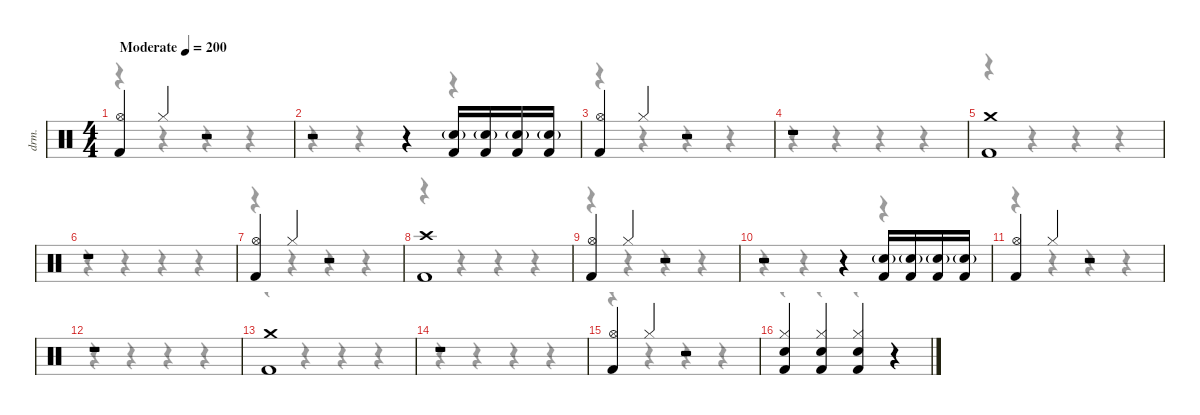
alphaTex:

\hideDynamics
\bracketExtendMode nobrackets
\otherSystemsTrackNameOrientation horizontal
\track ("Drums" "drm.") {instrument percussion}
\staff {score}
\articulation defaults
\voice
\ts (4 4)
\beaming (8 2 2 2 2)
\scale
1.11646
\tempo (200 "Moderate")
\accidentals auto
\clef neutral
\ottava regular
\simile none
\ks c
("Kick (hit) 2" "Hi-Hat (open)").4{dy f} "Hi-Hat (closed)".4{dy ppp} r.2 |
\scale
0.982592 r.2 r.4 ("Kick (hit) 2" "Snare (hit) 2"{g}).16{dy f} ("Kick (hit) 2" "Snare (hit) 2"{g}).16 ("Kick (hit) 2" "Snare (hit) 2"{g}).16 ("Kick (hit) 2" "Snare (hit) 2"{g}).16 |
\scale
0.982592 ("Kick (hit) 2" "Hi-Hat (open)").4 "Hi-Hat (closed)".4{dy ppp} r.2 |
\scale
0.982592 r.1 |
\scale
0.953169 ("Kick (hit) 2" "Crash medium (hit)").1{dy f} |
\scale
0.982592 r.1 |
\scale
1.04928 ("Kick (hit) 2" "Hi-Hat (open)").4 "Hi-Hat (closed)".4{dy ppp} r.2 |
\scale
0.990143 ("Kick (hit) 2" "Crash high (hit)").1{dy f} |
\scale
0.990143 ("Kick (hit) 2" "Hi-Hat (open)").4 "Hi-Hat (closed)".4{dy ppp} r.2 |
\scale
0.990143 r.2 r.4 ("Kick (hit) 2" "Snare (hit) 2"{g}).16{dy f} ("Kick (hit) 2" "Snare (hit) 2"{g}).16 ("Kick (hit) 2" "Snare (hit) 2"{g}).16 ("Kick (hit) 2" "Snare (hit) 2"{g}).16 |
\scale
0.990143 ("Kick (hit) 2" "Hi-Hat (open)").4 "Hi-Hat (closed)".4{dy ppp} r.2 |
\scale
0.990143 r.1 |
\scale
1.05458 ("Kick (hit) 2" "Crash medium (hit)").1{dy f} |
\scale
0.995439 r.1 |
\scale
0.995439 ("Kick (hit) 2" "Hi-Hat (open)").4 "Hi-Hat (closed)".4{dy ppp} r.2 |
\scale
1.0078 ("Kick (hit) 2" "Snare (hit) 2" "Hi-Hat (closed)").4{dy f} ("Kick (hit) 2" "Snare (hit) 2" "Hi-Hat (closed)").4 ("Kick (hit) 2" "Snare (hit) 2" "Hi-Hat (closed)").4 r.4
\voice
\clef neutral
\ottava regular
\simile none
\ks c
r.4{dy mf} r.4 r.4 r.4 |
r.4 r.4 r.4 r.4 |
r.4 r.4 r.4 r.4 |
r.4 r.4 r.4 r.4 |
r.4 r.4 r.4 r.4 |
r.4 r.4 r.4 r.4 |
r.4 r.4 r.4 r.4 |
r.4 r.4 r.4 r.4 |
r.4 r.4 r.4 r.4 |
r.4 r.4 r.4 r.4 |
r.4 r.4 r.4 r.4 |
r.4 r.4 r.4 r.4 |
r.4 r.4 r.4 r.4 |
r.4 r.4 r.4 r.4 |
r.4 r.4 r.4 r.4 |
r.4 r.4 r.4 r.4
